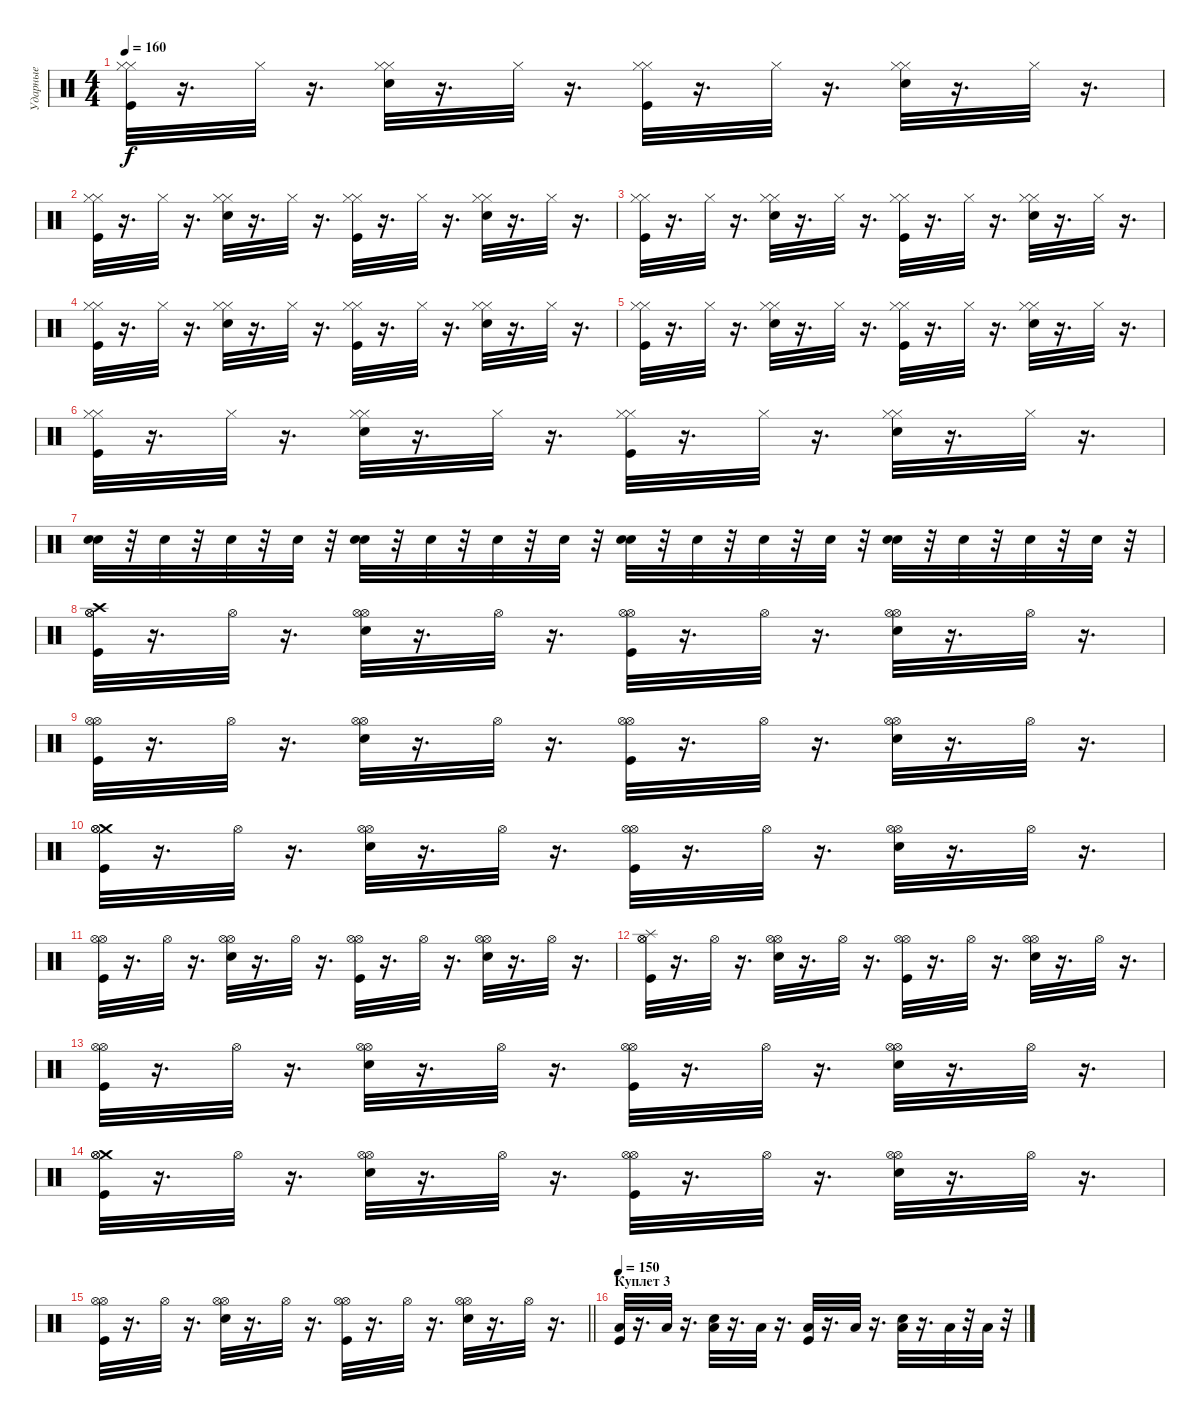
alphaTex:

\track ("Ударные" "Ударные") {instrument percussion}
\staff {score}
\articulation defaults
\ts (4 4)
\tempo 160
\clef neutral
\ks c
("Hi-Hat (closed)" "Hi-Hat (closed)" "Kick (hit)").32{dy f} r.16{d} "Hi-Hat (closed)".32 r.16{d} ("Hi-Hat (closed)" "Hi-Hat (closed)" "Snare (hit) 2").32 r.16{d} "Hi-Hat (closed)".32 r.16{d} ("Hi-Hat (closed)" "Hi-Hat (closed)" "Kick (hit)").32 r.16{d} "Hi-Hat (closed)".32 r.16{d} ("Hi-Hat (closed)" "Hi-Hat (closed)" "Snare (hit) 2").32 r.16{d} "Hi-Hat (closed)".32 r.16{d} |
("Hi-Hat (closed)" "Hi-Hat (closed)" "Kick (hit)").32 r.16{d} "Hi-Hat (closed)".32 r.16{d} ("Hi-Hat (closed)" "Hi-Hat (closed)" "Snare (hit) 2").32 r.16{d} "Hi-Hat (closed)".32 r.16{d} ("Hi-Hat (closed)" "Hi-Hat (closed)" "Kick (hit)").32 r.16{d} "Hi-Hat (closed)".32 r.16{d} ("Hi-Hat (closed)" "Hi-Hat (closed)" "Snare (hit) 2").32 r.16{d} "Hi-Hat (closed)".32 r.16{d} |
("Hi-Hat (closed)" "Hi-Hat (closed)" "Kick (hit)").32 r.16{d} "Hi-Hat (closed)".32 r.16{d} ("Hi-Hat (closed)" "Hi-Hat (closed)" "Snare (hit) 2").32 r.16{d} "Hi-Hat (closed)".32 r.16{d} ("Hi-Hat (closed)" "Hi-Hat (closed)" "Kick (hit)").32 r.16{d} "Hi-Hat (closed)".32 r.16{d} ("Hi-Hat (closed)" "Hi-Hat (closed)" "Snare (hit) 2").32 r.16{d} "Hi-Hat (closed)".32 r.16{d} |
("Hi-Hat (closed)" "Hi-Hat (closed)" "Kick (hit)").32 r.16{d} "Hi-Hat (closed)".32 r.16{d} ("Hi-Hat (closed)" "Hi-Hat (closed)" "Snare (hit) 2").32 r.16{d} "Hi-Hat (closed)".32 r.16{d} ("Hi-Hat (closed)" "Hi-Hat (closed)" "Kick (hit)").32 r.16{d} "Hi-Hat (closed)".32 r.16{d} ("Hi-Hat (closed)" "Hi-Hat (closed)" "Snare (hit) 2").32 r.16{d} "Hi-Hat (closed)".32 r.16{d} |
("Hi-Hat (closed)" "Hi-Hat (closed)" "Kick (hit)").32 r.16{d} "Hi-Hat (closed)".32 r.16{d} ("Hi-Hat (closed)" "Hi-Hat (closed)" "Snare (hit) 2").32 r.16{d} "Hi-Hat (closed)".32 r.16{d} ("Hi-Hat (closed)" "Hi-Hat (closed)" "Kick (hit)").32 r.16{d} "Hi-Hat (closed)".32 r.16{d} ("Hi-Hat (closed)" "Hi-Hat (closed)" "Snare (hit) 2").32 r.16{d} "Hi-Hat (closed)".32 r.16{d} |
("Hi-Hat (closed)" "Hi-Hat (closed)" "Kick (hit)").32 r.16{d} "Hi-Hat (closed)".32 r.16{d} ("Hi-Hat (closed)" "Hi-Hat (closed)" "Snare (hit) 2").32 r.16{d} "Hi-Hat (closed)".32 r.16{d} ("Hi-Hat (closed)" "Hi-Hat (closed)" "Kick (hit)").32 r.16{d} "Hi-Hat (closed)".32 r.16{d} ("Hi-Hat (closed)" "Hi-Hat (closed)" "Snare (hit) 2").32 r.16{d} "Hi-Hat (closed)".32 r.16{d} |
("Snare (hit) 2" "Snare (hit) 2").32 r.32 "Snare (hit) 2".32 r.32 "Snare (hit) 2".32 r.32 "Snare (hit) 2".32 r.32 ("Snare (hit) 2" "Snare (hit) 2").32 r.32 "Snare (hit) 2".32 r.32 "Snare (hit) 2".32 r.32 "Snare (hit) 2".32 r.32 ("Snare (hit) 2" "Snare (hit) 2").32 r.32 "Snare (hit) 2".32 r.32 "Snare (hit) 2".32 r.32 "Snare (hit) 2".32 r.32 ("Snare (hit) 2" "Snare (hit) 2").32 r.32 "Snare (hit) 2".32 r.32 "Snare (hit) 2".32 r.32 "Snare (hit) 2".32 r.32 |
("Crash high (hit)" "Kick (hit)" "Hi-Hat (open)" "Hi-Hat (open)").32 r.16{d} "Hi-Hat (open)".32 r.16{d} ("Hi-Hat (open)" "Snare (hit) 2" "Hi-Hat (open)").32 r.16{d} "Hi-Hat (open)".32 r.16{d} ("Hi-Hat (open)" "Kick (hit)" "Hi-Hat (open)").32 r.16{d} "Hi-Hat (open)".32 r.16{d} ("Hi-Hat (open)" "Hi-Hat (open)" "Snare (hit) 2").32 r.16{d} "Hi-Hat (open)".32 r.16{d} |
("Hi-Hat (open)" "Hi-Hat (open)" "Kick (hit)").32 r.16{d} "Hi-Hat (open)".32 r.16{d} ("Snare (hit) 2" "Hi-Hat (open)" "Hi-Hat (open)").32 r.16{d} "Hi-Hat (open)".32 r.16{d} ("Kick (hit)" "Hi-Hat (open)" "Hi-Hat (open)").32 r.16{d} "Hi-Hat (open)".32 r.16{d} ("Hi-Hat (open)" "Hi-Hat (open)" "Snare (hit) 2").32 r.16{d} "Hi-Hat (open)".32 r.16{d} |
("Crash medium (hit)" "Hi-Hat (open)" "Kick (hit)" "Hi-Hat (open)").32 r.16{d} "Hi-Hat (open)".32 r.16{d} ("Hi-Hat (open)" "Snare (hit) 2" "Hi-Hat (open)").32 r.16{d} "Hi-Hat (open)".32 r.16{d} ("Kick (hit)" "Hi-Hat (open)" "Hi-Hat (open)").32 r.16{d} "Hi-Hat (open)".32 r.16{d} ("Hi-Hat (open)" "Hi-Hat (open)" "Snare (hit) 2").32 r.16{d} "Hi-Hat (open)".32 r.16{d} |
("Kick (hit)" "Hi-Hat (open)" "Hi-Hat (open)").32 r.16{d} "Hi-Hat (open)".32 r.16{d} ("Snare (hit) 2" "Hi-Hat (open)" "Hi-Hat (open)").32 r.16{d} "Hi-Hat (open)".32 r.16{d} ("Kick (hit)" "Hi-Hat (open)" "Hi-Hat (open)").32 r.16{d} "Hi-Hat (open)".32 r.16{d} ("Hi-Hat (open)" "Snare (hit) 2" "Hi-Hat (open)").32 r.16{d} "Hi-Hat (open)".32 r.16{d} |
("Splash (hit)" "Hi-Hat (open)" "Kick (hit)" "Hi-Hat (open)").32 r.16{d} "Hi-Hat (open)".32 r.16{d} ("Hi-Hat (open)" "Hi-Hat (open)" "Snare (hit) 2").32 r.16{d} "Hi-Hat (open)".32 r.16{d} ("Hi-Hat (open)" "Hi-Hat (open)" "Kick (hit)").32 r.16{d} "Hi-Hat (open)".32 r.16{d} ("Snare (hit) 2" "Hi-Hat (open)" "Hi-Hat (open)").32 r.16{d} "Hi-Hat (open)".32 r.16{d} |
("Kick (hit)" "Hi-Hat (open)" "Hi-Hat (open)").32 r.16{d} "Hi-Hat (open)".32 r.16{d} ("Snare (hit) 2" "Hi-Hat (open)" "Hi-Hat (open)").32 r.16{d} "Hi-Hat (open)".32 r.16{d} ("Hi-Hat (open)" "Kick (hit)" "Hi-Hat (open)").32 r.16{d} "Hi-Hat (open)".32 r.16{d} ("Hi-Hat (open)" "Snare (hit) 2" "Hi-Hat (open)").32 r.16{d} "Hi-Hat (open)".32 r.16{d} |
("Crash medium (hit)" "Kick (hit)" "Hi-Hat (open)" "Hi-Hat (open)").32 r.16{d} "Hi-Hat (open)".32 r.16{d} ("Hi-Hat (open)" "Hi-Hat (open)" "Snare (hit) 2").32 r.16{d} "Hi-Hat (open)".32 r.16{d} ("Kick (hit)" "Hi-Hat (open)" "Hi-Hat (open)").32 r.16{d} "Hi-Hat (open)".32 r.16{d} ("Snare (hit) 2" "Hi-Hat (open)" "Hi-Hat (open)").32 r.16{d} "Hi-Hat (open)".32 r.16{d} |
\barLineRight lightlight
("Kick (hit)" "Hi-Hat (open)" "Hi-Hat (open)").32 r.16{d} "Hi-Hat (open)".32 r.16{d} ("Hi-Hat (open)" "Snare (hit) 2" "Hi-Hat (open)").32 r.16{d} "Hi-Hat (open)".32 r.16{d} ("Kick (hit)" "Hi-Hat (open)" "Hi-Hat (open)").32 r.16{d} "Hi-Hat (open)".32 r.16{d} ("Snare (hit) 2" "Hi-Hat (open)" "Hi-Hat (open)").32 r.16{d} "Hi-Hat (open)".32 r.16{d} |
\section ("" "Куплет 3")
\tempo 150
("Kick (hit)" "Low Floor Tom (hit)").32 r.16{d} "Low Floor Tom (hit)".32 r.16{d} ("Low Floor Tom (hit)" "Snare (hit) 2").32 r.16{d} "Low Floor Tom (hit)".32 r.16{d} ("Kick (hit)" "Low Floor Tom (hit)").32 r.16{d} "Low Floor Tom (hit)".32 r.16{d} ("Low Floor Tom (hit)" "Snare (hit) 2").32 r.16{d} "Low Floor Tom (hit)".32 r.32 "Low Floor Tom (hit)".32 r.32
